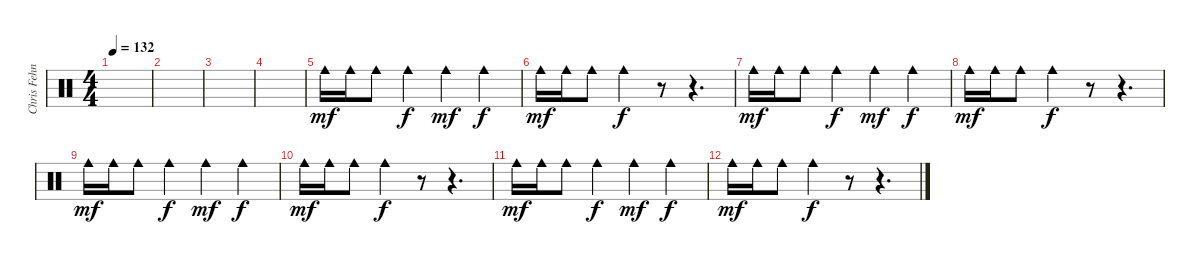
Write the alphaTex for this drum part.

\track ("Chris Fehn" "Chris Fehn") {instrument percussion}
\staff {score}
\articulation defaults
\ts (4 4)
\tempo 132
\clef neutral
\ks c
|
|
|
|
"Cowbell medium (hit)".16{dy mf} "Cowbell medium (hit)".16 "Cowbell medium (hit)".8 "Cowbell medium (hit)".4{dy f} "Cowbell medium (hit)".4{dy mf} "Cowbell medium (hit)".4{dy f} |
"Cowbell medium (hit)".16{dy mf} "Cowbell medium (hit)".16 "Cowbell medium (hit)".8 "Cowbell medium (hit)".4{dy f} r.8 r.4{d} |
"Cowbell medium (hit)".16{dy mf} "Cowbell medium (hit)".16 "Cowbell medium (hit)".8 "Cowbell medium (hit)".4{dy f} "Cowbell medium (hit)".4{dy mf} "Cowbell medium (hit)".4{dy f} |
"Cowbell medium (hit)".16{dy mf} "Cowbell medium (hit)".16 "Cowbell medium (hit)".8 "Cowbell medium (hit)".4{dy f} r.8 r.4{d} |
"Cowbell medium (hit)".16{dy mf} "Cowbell medium (hit)".16 "Cowbell medium (hit)".8 "Cowbell medium (hit)".4{dy f} "Cowbell medium (hit)".4{dy mf} "Cowbell medium (hit)".4{dy f} |
"Cowbell medium (hit)".16{dy mf} "Cowbell medium (hit)".16 "Cowbell medium (hit)".8 "Cowbell medium (hit)".4{dy f} r.8 r.4{d} |
"Cowbell medium (hit)".16{dy mf} "Cowbell medium (hit)".16 "Cowbell medium (hit)".8 "Cowbell medium (hit)".4{dy f} "Cowbell medium (hit)".4{dy mf} "Cowbell medium (hit)".4{dy f} |
"Cowbell medium (hit)".16{dy mf} "Cowbell medium (hit)".16 "Cowbell medium (hit)".8 "Cowbell medium (hit)".4{dy f} r.8 r.4{d}
